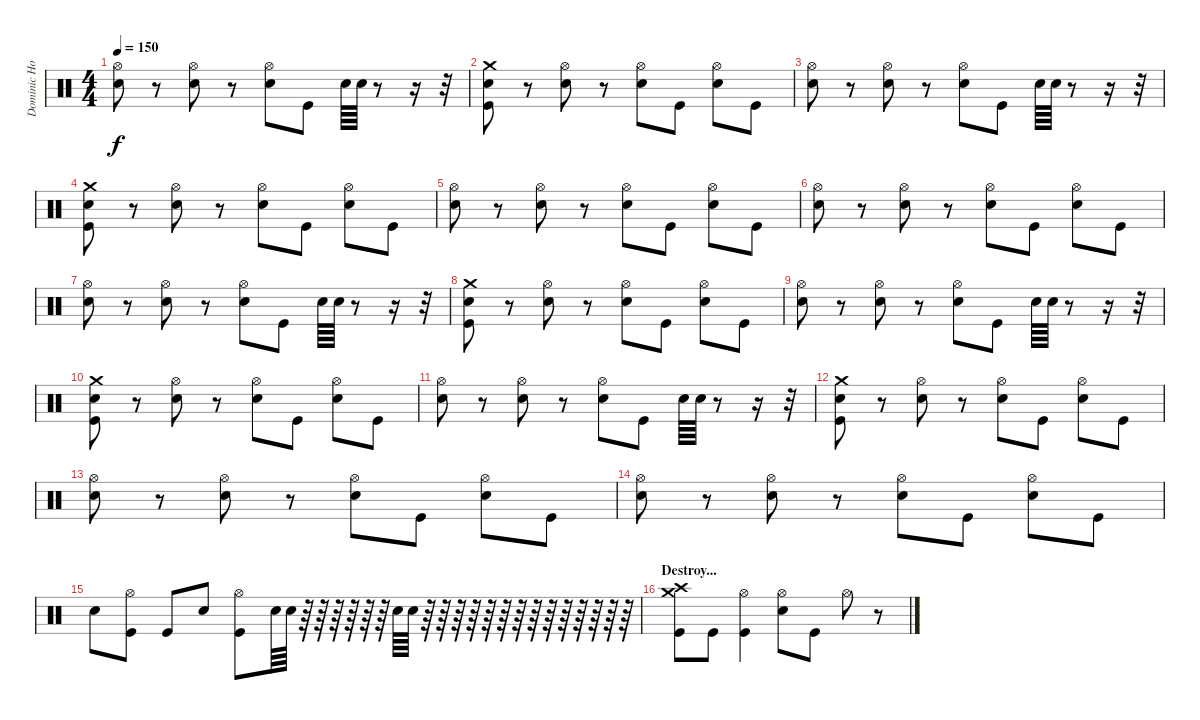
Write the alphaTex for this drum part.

\track ("Dominic Howard" "Dominic Ho") {instrument percussion}
\staff {score}
\articulation defaults
\ts (4 4)
\tempo 150
\clef neutral
\ks c
("Hi-Hat (open)" "Snare (hit) 2").8{dy f} r.8 ("Hi-Hat (open)" "Snare (hit) 2").8 r.8 ("Hi-Hat (open)" "Snare (hit) 2").8 "Kick (hit)".8 "Snare (hit) 2".64 "Snare (hit) 2".64 r.8 r.16 r.32 |
("Crash medium (hit)" "Snare (hit) 2" "Kick (hit)").8 r.8 ("Hi-Hat (open)" "Snare (hit) 2").8 r.8 ("Hi-Hat (open)" "Snare (hit) 2").8 "Kick (hit)".8 ("Hi-Hat (open)" "Snare (hit) 2").8 "Kick (hit)".8 |
("Hi-Hat (open)" "Snare (hit) 2").8 r.8 ("Hi-Hat (open)" "Snare (hit) 2").8 r.8 ("Hi-Hat (open)" "Snare (hit) 2").8 "Kick (hit)".8 "Snare (hit) 2".64 "Snare (hit) 2".64 r.8 r.16 r.32 |
("Crash medium (hit)" "Snare (hit) 2" "Kick (hit)").8 r.8 ("Hi-Hat (open)" "Snare (hit) 2").8 r.8 ("Hi-Hat (open)" "Snare (hit) 2").8 "Kick (hit)".8 ("Hi-Hat (open)" "Snare (hit) 2").8 "Kick (hit)".8 |
("Hi-Hat (open)" "Snare (hit) 2").8 r.8 ("Hi-Hat (open)" "Snare (hit) 2").8 r.8 ("Hi-Hat (open)" "Snare (hit) 2").8 "Kick (hit)".8 ("Hi-Hat (open)" "Snare (hit) 2").8 "Kick (hit)".8 |
("Hi-Hat (open)" "Snare (hit) 2").8 r.8 ("Hi-Hat (open)" "Snare (hit) 2").8 r.8 ("Hi-Hat (open)" "Snare (hit) 2").8 "Kick (hit)".8 ("Hi-Hat (open)" "Snare (hit) 2").8 "Kick (hit)".8 |
("Hi-Hat (open)" "Snare (hit) 2").8 r.8 ("Hi-Hat (open)" "Snare (hit) 2").8 r.8 ("Hi-Hat (open)" "Snare (hit) 2").8 "Kick (hit)".8 "Snare (hit) 2".64 "Snare (hit) 2".64 r.8 r.16 r.32 |
("Crash medium (hit)" "Snare (hit) 2" "Kick (hit)").8 r.8 ("Hi-Hat (open)" "Snare (hit) 2").8 r.8 ("Hi-Hat (open)" "Snare (hit) 2").8 "Kick (hit)".8 ("Hi-Hat (open)" "Snare (hit) 2").8 "Kick (hit)".8 |
("Hi-Hat (open)" "Snare (hit) 2").8 r.8 ("Hi-Hat (open)" "Snare (hit) 2").8 r.8 ("Hi-Hat (open)" "Snare (hit) 2").8 "Kick (hit)".8 "Snare (hit) 2".64 "Snare (hit) 2".64 r.8 r.16 r.32 |
("Crash medium (hit)" "Snare (hit) 2" "Kick (hit)").8 r.8 ("Hi-Hat (open)" "Snare (hit) 2").8 r.8 ("Hi-Hat (open)" "Snare (hit) 2").8 "Kick (hit)".8 ("Hi-Hat (open)" "Snare (hit) 2").8 "Kick (hit)".8 |
("Hi-Hat (open)" "Snare (hit) 2").8 r.8 ("Hi-Hat (open)" "Snare (hit) 2").8 r.8 ("Hi-Hat (open)" "Snare (hit) 2").8 "Kick (hit)".8 "Snare (hit) 2".64 "Snare (hit) 2".64 r.8 r.16 r.32 |
("Crash medium (hit)" "Snare (hit) 2" "Kick (hit)").8 r.8 ("Hi-Hat (open)" "Snare (hit) 2").8 r.8 ("Hi-Hat (open)" "Snare (hit) 2").8 "Kick (hit)".8 ("Hi-Hat (open)" "Snare (hit) 2").8 "Kick (hit)".8 |
("Hi-Hat (open)" "Snare (hit) 2").8 r.8 ("Hi-Hat (open)" "Snare (hit) 2").8 r.8 ("Hi-Hat (open)" "Snare (hit) 2").8 "Kick (hit)".8 ("Hi-Hat (open)" "Snare (hit) 2").8 "Kick (hit)".8 |
("Hi-Hat (open)" "Snare (hit) 2").8 r.8 ("Hi-Hat (open)" "Snare (hit) 2").8 r.8 ("Hi-Hat (open)" "Snare (hit) 2").8 "Kick (hit)".8 ("Hi-Hat (open)" "Snare (hit) 2").8 "Kick (hit)".8 |
"Snare (hit) 2".8 ("Hi-Hat (open)" "Kick (hit)").8 "Kick (hit)".8 "Snare (hit) 2".8 ("Hi-Hat (open)" "Kick (hit)").8 "Snare (hit) 2".64 "Snare (hit) 2".64 r.64 r.64 r.64 r.64 r.64 r.64 "Snare (hit) 2".64 "Snare (hit) 2".64 r.64 r.64 r.64 r.64 r.64 r.64 r.64 r.64 r.64 r.64 r.64 r.64 r.64 r.64 |
\section ("" "Destroy...")
("Crash high (hit)" "Crash medium (hit)" "Kick (hit)").8 "Kick (hit)".8 ("Hi-Hat (open)" "Kick (hit)").4 ("Hi-Hat (open)" "Snare (hit) 2").8 "Kick (hit)".8 "Hi-Hat (open)".8 r.8
